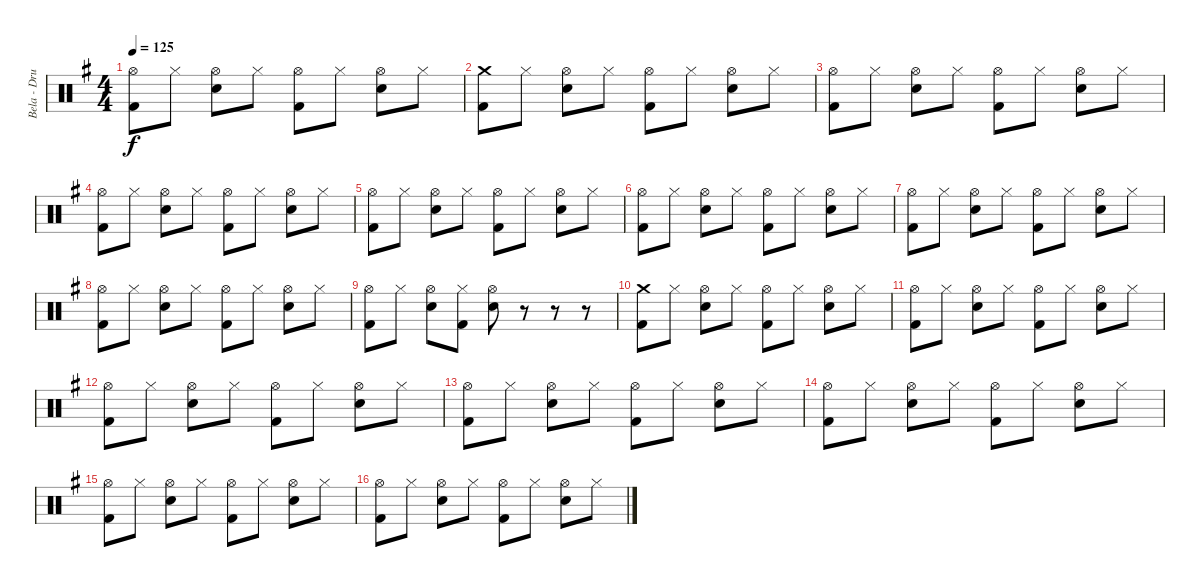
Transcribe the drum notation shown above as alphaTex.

\track ("Bela - Drums" "Bela - Dru") {instrument percussion}
\staff {score}
\articulation defaults
\ts (4 4)
\tempo 125
\clef neutral
\ks g
("Hi-Hat (open)" "Kick (hit) 2").8{dy f} "Hi-Hat (closed)".8 ("Hi-Hat (open)" "Snare (hit) 2").8 "Hi-Hat (closed)".8 ("Hi-Hat (open)" "Kick (hit) 2").8 "Hi-Hat (closed)".8 ("Hi-Hat (open)" "Snare (hit) 2").8 "Hi-Hat (closed)".8 |
("Crash medium (hit)" "Kick (hit) 2").8 "Hi-Hat (closed)".8 ("Hi-Hat (open)" "Snare (hit) 2").8 "Hi-Hat (closed)".8 ("Hi-Hat (open)" "Kick (hit) 2").8 "Hi-Hat (closed)".8 ("Hi-Hat (open)" "Snare (hit) 2").8 "Hi-Hat (closed)".8 |
("Hi-Hat (open)" "Kick (hit) 2").8 "Hi-Hat (closed)".8 ("Hi-Hat (open)" "Snare (hit) 2").8 "Hi-Hat (closed)".8 ("Hi-Hat (open)" "Kick (hit) 2").8 "Hi-Hat (closed)".8 ("Hi-Hat (open)" "Snare (hit) 2").8 "Hi-Hat (closed)".8 |
("Hi-Hat (open)" "Kick (hit) 2").8 "Hi-Hat (closed)".8 ("Hi-Hat (open)" "Snare (hit) 2").8 "Hi-Hat (closed)".8 ("Hi-Hat (open)" "Kick (hit) 2").8 "Hi-Hat (closed)".8 ("Hi-Hat (open)" "Snare (hit) 2").8 "Hi-Hat (closed)".8 |
("Hi-Hat (open)" "Kick (hit) 2").8 "Hi-Hat (closed)".8 ("Hi-Hat (open)" "Snare (hit) 2").8 "Hi-Hat (closed)".8 ("Hi-Hat (open)" "Kick (hit) 2").8 "Hi-Hat (closed)".8 ("Hi-Hat (open)" "Snare (hit) 2").8 "Hi-Hat (closed)".8 |
("Hi-Hat (open)" "Kick (hit) 2").8 "Hi-Hat (closed)".8 ("Hi-Hat (open)" "Snare (hit) 2").8 "Hi-Hat (closed)".8 ("Hi-Hat (open)" "Kick (hit) 2").8 "Hi-Hat (closed)".8 ("Hi-Hat (open)" "Snare (hit) 2").8 "Hi-Hat (closed)".8 |
("Hi-Hat (open)" "Kick (hit) 2").8 "Hi-Hat (closed)".8 ("Hi-Hat (open)" "Snare (hit) 2").8 "Hi-Hat (closed)".8 ("Hi-Hat (open)" "Kick (hit) 2").8 "Hi-Hat (closed)".8 ("Hi-Hat (open)" "Snare (hit) 2").8 "Hi-Hat (closed)".8 |
("Hi-Hat (open)" "Kick (hit) 2").8 "Hi-Hat (closed)".8 ("Hi-Hat (open)" "Snare (hit) 2").8 "Hi-Hat (closed)".8 ("Hi-Hat (open)" "Kick (hit) 2").8 "Hi-Hat (closed)".8 ("Hi-Hat (open)" "Snare (hit) 2").8 "Hi-Hat (closed)".8 |
("Hi-Hat (open)" "Kick (hit) 2").8 "Hi-Hat (closed)".8 ("Hi-Hat (open)" "Snare (hit) 2").8 ("Hi-Hat (closed)" "Kick (hit) 2").8 ("Hi-Hat (open)" "Snare (hit) 2").8 r.8 r.8 r.8 |
("Crash medium (hit)" "Kick (hit) 2").8 "Hi-Hat (closed)".8 ("Hi-Hat (open)" "Snare (hit) 2").8 "Hi-Hat (closed)".8 ("Hi-Hat (open)" "Kick (hit) 2").8 "Hi-Hat (closed)".8 ("Hi-Hat (open)" "Snare (hit) 2").8 "Hi-Hat (closed)".8 |
("Hi-Hat (open)" "Kick (hit) 2").8 "Hi-Hat (closed)".8 ("Hi-Hat (open)" "Snare (hit) 2").8 "Hi-Hat (closed)".8 ("Hi-Hat (open)" "Kick (hit) 2").8 "Hi-Hat (closed)".8 ("Hi-Hat (open)" "Snare (hit) 2").8 "Hi-Hat (closed)".8 |
("Hi-Hat (open)" "Kick (hit) 2").8 "Hi-Hat (closed)".8 ("Hi-Hat (open)" "Snare (hit) 2").8 "Hi-Hat (closed)".8 ("Hi-Hat (open)" "Kick (hit) 2").8 "Hi-Hat (closed)".8 ("Hi-Hat (open)" "Snare (hit) 2").8 "Hi-Hat (closed)".8 |
("Hi-Hat (open)" "Kick (hit) 2").8 "Hi-Hat (closed)".8 ("Hi-Hat (open)" "Snare (hit) 2").8 "Hi-Hat (closed)".8 ("Hi-Hat (open)" "Kick (hit) 2").8 "Hi-Hat (closed)".8 ("Hi-Hat (open)" "Snare (hit) 2").8 "Hi-Hat (closed)".8 |
("Hi-Hat (open)" "Kick (hit) 2").8 "Hi-Hat (closed)".8 ("Hi-Hat (open)" "Snare (hit) 2").8 "Hi-Hat (closed)".8 ("Hi-Hat (open)" "Kick (hit) 2").8 "Hi-Hat (closed)".8 ("Hi-Hat (open)" "Snare (hit) 2").8 "Hi-Hat (closed)".8 |
("Hi-Hat (open)" "Kick (hit) 2").8 "Hi-Hat (closed)".8 ("Hi-Hat (open)" "Snare (hit) 2").8 "Hi-Hat (closed)".8 ("Hi-Hat (open)" "Kick (hit) 2").8 "Hi-Hat (closed)".8 ("Hi-Hat (open)" "Snare (hit) 2").8 "Hi-Hat (closed)".8 |
("Hi-Hat (open)" "Kick (hit) 2").8 "Hi-Hat (closed)".8 ("Hi-Hat (open)" "Snare (hit) 2").8 "Hi-Hat (closed)".8 ("Hi-Hat (open)" "Kick (hit) 2").8 "Hi-Hat (closed)".8 ("Hi-Hat (open)" "Snare (hit) 2").8 "Hi-Hat (closed)".8
